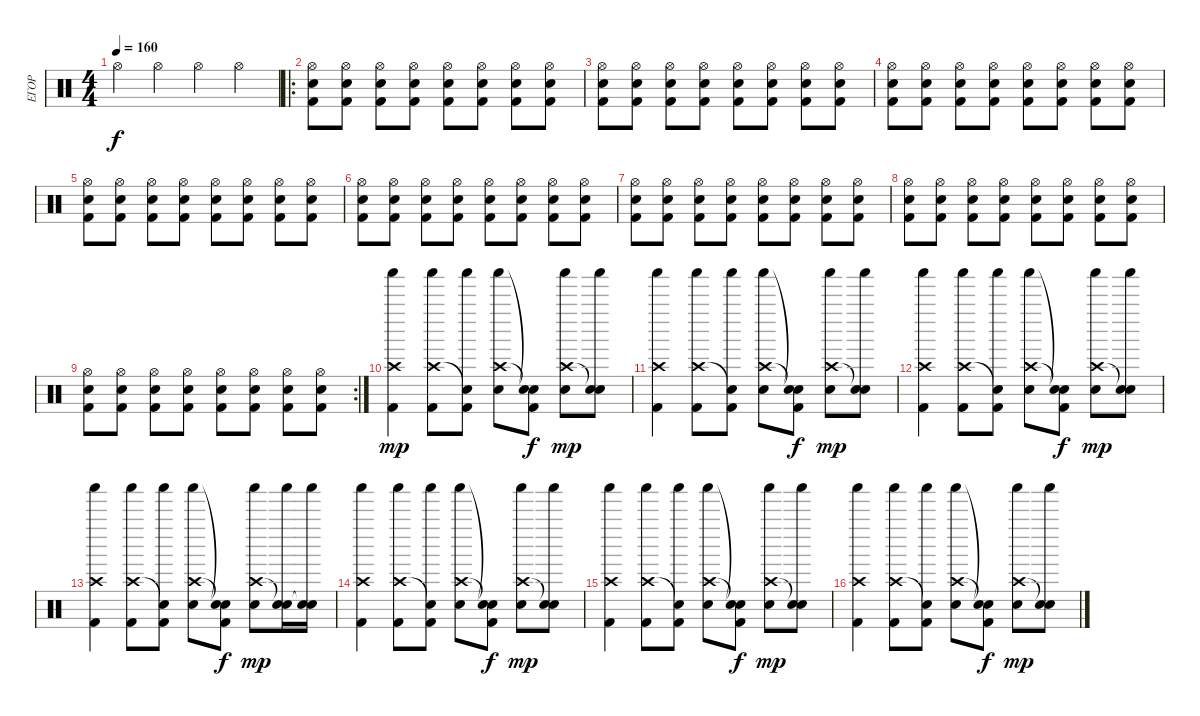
\track ("ЕГОР" "ЕГОР") {instrument percussion}
\staff {score}
\articulation defaults
\ts (4 4)
\tempo 160
\clef neutral
\ks c "Hi-Hat (open)".4{dy f} "Hi-Hat (open)".4 "Hi-Hat (open)".4 "Hi-Hat (open)".4
|
\ro
("Hi-Hat (open)" "Electric Snare (hit)" "Kick (hit) 2").8 ("Hi-Hat (open)" "Electric Snare (hit)" "Kick (hit) 2").8 ("Hi-Hat (open)" "Electric Snare (hit)" "Kick (hit) 2").8 ("Hi-Hat (open)" "Electric Snare (hit)" "Kick (hit) 2").8 ("Hi-Hat (open)" "Electric Snare (hit)" "Kick (hit) 2").8 ("Hi-Hat (open)" "Electric Snare (hit)" "Kick (hit) 2").8 ("Hi-Hat (open)" "Electric Snare (hit)" "Kick (hit) 2").8 ("Hi-Hat (open)" "Electric Snare (hit)" "Kick (hit) 2").8 |
("Hi-Hat (open)" "Electric Snare (hit)" "Kick (hit) 2").8 ("Hi-Hat (open)" "Electric Snare (hit)" "Kick (hit) 2").8 ("Hi-Hat (open)" "Electric Snare (hit)" "Kick (hit) 2").8 ("Hi-Hat (open)" "Electric Snare (hit)" "Kick (hit) 2").8 ("Hi-Hat (open)" "Electric Snare (hit)" "Kick (hit) 2").8 ("Hi-Hat (open)" "Electric Snare (hit)" "Kick (hit) 2").8 ("Hi-Hat (open)" "Electric Snare (hit)" "Kick (hit) 2").8 ("Hi-Hat (open)" "Electric Snare (hit)" "Kick (hit) 2").8 |
("Hi-Hat (open)" "Electric Snare (hit)" "Kick (hit) 2").8 ("Hi-Hat (open)" "Electric Snare (hit)" "Kick (hit) 2").8 ("Hi-Hat (open)" "Electric Snare (hit)" "Kick (hit) 2").8 ("Hi-Hat (open)" "Electric Snare (hit)" "Kick (hit) 2").8 ("Hi-Hat (open)" "Electric Snare (hit)" "Kick (hit) 2").8 ("Hi-Hat (open)" "Electric Snare (hit)" "Kick (hit) 2").8 ("Hi-Hat (open)" "Electric Snare (hit)" "Kick (hit) 2").8 ("Hi-Hat (open)" "Electric Snare (hit)" "Kick (hit) 2").8 |
("Hi-Hat (open)" "Electric Snare (hit)" "Kick (hit) 2").8 ("Hi-Hat (open)" "Electric Snare (hit)" "Kick (hit) 2").8 ("Hi-Hat (open)" "Electric Snare (hit)" "Kick (hit) 2").8 ("Hi-Hat (open)" "Electric Snare (hit)" "Kick (hit) 2").8 ("Hi-Hat (open)" "Electric Snare (hit)" "Kick (hit) 2").8 ("Hi-Hat (open)" "Electric Snare (hit)" "Kick (hit) 2").8 ("Hi-Hat (open)" "Electric Snare (hit)" "Kick (hit) 2").8 ("Hi-Hat (open)" "Electric Snare (hit)" "Kick (hit) 2").8 |
("Hi-Hat (open)" "Electric Snare (hit)" "Kick (hit) 2").8 ("Hi-Hat (open)" "Electric Snare (hit)" "Kick (hit) 2").8 ("Hi-Hat (open)" "Electric Snare (hit)" "Kick (hit) 2").8 ("Hi-Hat (open)" "Electric Snare (hit)" "Kick (hit) 2").8 ("Hi-Hat (open)" "Electric Snare (hit)" "Kick (hit) 2").8 ("Hi-Hat (open)" "Electric Snare (hit)" "Kick (hit) 2").8 ("Hi-Hat (open)" "Electric Snare (hit)" "Kick (hit) 2").8 ("Hi-Hat (open)" "Electric Snare (hit)" "Kick (hit) 2").8 |
("Hi-Hat (open)" "Electric Snare (hit)" "Kick (hit) 2").8 ("Hi-Hat (open)" "Electric Snare (hit)" "Kick (hit) 2").8 ("Hi-Hat (open)" "Electric Snare (hit)" "Kick (hit) 2").8 ("Hi-Hat (open)" "Electric Snare (hit)" "Kick (hit) 2").8 ("Hi-Hat (open)" "Electric Snare (hit)" "Kick (hit) 2").8 ("Hi-Hat (open)" "Electric Snare (hit)" "Kick (hit) 2").8 ("Hi-Hat (open)" "Electric Snare (hit)" "Kick (hit) 2").8 ("Hi-Hat (open)" "Electric Snare (hit)" "Kick (hit) 2").8 |
("Hi-Hat (open)" "Electric Snare (hit)" "Kick (hit) 2").8 ("Hi-Hat (open)" "Electric Snare (hit)" "Kick (hit) 2").8 ("Hi-Hat (open)" "Electric Snare (hit)" "Kick (hit) 2").8 ("Hi-Hat (open)" "Electric Snare (hit)" "Kick (hit) 2").8 ("Hi-Hat (open)" "Electric Snare (hit)" "Kick (hit) 2").8 ("Hi-Hat (open)" "Electric Snare (hit)" "Kick (hit) 2").8 ("Hi-Hat (open)" "Electric Snare (hit)" "Kick (hit) 2").8 ("Hi-Hat (open)" "Electric Snare (hit)" "Kick (hit) 2").8 |
\rc 2
("Hi-Hat (open)" "Electric Snare (hit)" "Kick (hit) 2").8 ("Hi-Hat (open)" "Electric Snare (hit)" "Kick (hit) 2").8 ("Hi-Hat (open)" "Electric Snare (hit)" "Kick (hit) 2").8 ("Hi-Hat (open)" "Electric Snare (hit)" "Kick (hit) 2").8 ("Hi-Hat (open)" "Electric Snare (hit)" "Kick (hit) 2").8 ("Hi-Hat (open)" "Electric Snare (hit)" "Kick (hit) 2").8 ("Hi-Hat (open)" "Electric Snare (hit)" "Kick (hit) 2").8 ("Hi-Hat (open)" "Electric Snare (hit)" "Kick (hit) 2").8 |
("Crash high (hit)" "Shaker (hit)" "Kick (hit) 2").4{dy mp} ("Crash high (hit)" "Shaker (hit)" "Kick (hit) 2").8 ("Snare (hit)"{t} "Shaker (hit)" "Kick (hit) 2").8 ("Crash high (hit)" "Shaker (hit)" "Electric Snare (hit)").8 ("Snare (hit)"{t} "Snare (hit)"{t} "Kick (hit) 2").8{dy f} ("Crash high (hit)" "Shaker (hit)" "Electric Snare (hit)").8{dy mp} ("Snare (hit)"{t} "Shaker (hit)" "Electric Snare (hit)").8 |
("Crash high (hit)" "Shaker (hit)" "Kick (hit) 2").4 ("Crash high (hit)" "Shaker (hit)" "Kick (hit) 2").8 ("Snare (hit)"{t} "Shaker (hit)" "Kick (hit) 2").8 ("Crash high (hit)" "Shaker (hit)" "Electric Snare (hit)").8 ("Snare (hit)"{t} "Snare (hit)"{t} "Kick (hit) 2").8{dy f} ("Crash high (hit)" "Shaker (hit)" "Electric Snare (hit)").8{dy mp} ("Snare (hit)"{t} "Shaker (hit)" "Electric Snare (hit)").8 |
("Crash high (hit)" "Shaker (hit)" "Kick (hit) 2").4 ("Crash high (hit)" "Shaker (hit)" "Kick (hit) 2").8 ("Snare (hit)"{t} "Shaker (hit)" "Kick (hit) 2").8 ("Crash high (hit)" "Shaker (hit)" "Electric Snare (hit)").8 ("Snare (hit)"{t} "Snare (hit)"{t} "Kick (hit) 2").8{dy f} ("Crash high (hit)" "Shaker (hit)" "Electric Snare (hit)").8{dy mp} ("Snare (hit)"{t} "Shaker (hit)" "Electric Snare (hit)").8 |
("Crash high (hit)" "Shaker (hit)" "Kick (hit) 2").4 ("Crash high (hit)" "Shaker (hit)" "Kick (hit) 2").8 ("Snare (hit)"{t} "Shaker (hit)" "Kick (hit) 2").8 ("Crash high (hit)" "Shaker (hit)" "Electric Snare (hit)").8 ("Snare (hit)"{t} "Snare (hit)"{t} "Kick (hit) 2").8{dy f} ("Crash high (hit)" "Shaker (hit)" "Electric Snare (hit)").8{dy mp} ("Snare (hit)"{t} "Shaker (hit)" "Electric Snare (hit)").16 ("Snare (hit)"{t} "Shaker (hit)" "Electric Snare (hit)").16 |
("Crash high (hit)" "Shaker (hit)" "Kick (hit) 2").4 ("Crash high (hit)" "Shaker (hit)" "Kick (hit) 2").8 ("Snare (hit)"{t} "Shaker (hit)" "Kick (hit) 2").8 ("Crash high (hit)" "Shaker (hit)" "Electric Snare (hit)").8 ("Snare (hit)"{t} "Snare (hit)"{t} "Kick (hit) 2").8{dy f} ("Crash high (hit)" "Shaker (hit)" "Electric Snare (hit)").8{dy mp} ("Snare (hit)"{t} "Shaker (hit)" "Electric Snare (hit)").8 |
("Crash high (hit)" "Shaker (hit)" "Kick (hit) 2").4 ("Crash high (hit)" "Shaker (hit)" "Kick (hit) 2").8 ("Snare (hit)"{t} "Shaker (hit)" "Kick (hit) 2").8 ("Crash high (hit)" "Shaker (hit)" "Electric Snare (hit)").8 ("Snare (hit)"{t} "Snare (hit)"{t} "Kick (hit) 2").8{dy f} ("Crash high (hit)" "Shaker (hit)" "Electric Snare (hit)").8{dy mp} ("Snare (hit)"{t} "Shaker (hit)" "Electric Snare (hit)").8 |
("Crash high (hit)" "Shaker (hit)" "Kick (hit) 2").4 ("Crash high (hit)" "Shaker (hit)" "Kick (hit) 2").8 ("Snare (hit)"{t} "Shaker (hit)" "Kick (hit) 2").8 ("Crash high (hit)" "Shaker (hit)" "Electric Snare (hit)").8 ("Snare (hit)"{t} "Snare (hit)"{t} "Kick (hit) 2").8{dy f} ("Crash high (hit)" "Shaker (hit)" "Electric Snare (hit)").8{dy mp} ("Snare (hit)"{t} "Shaker (hit)" "Electric Snare (hit)").8
